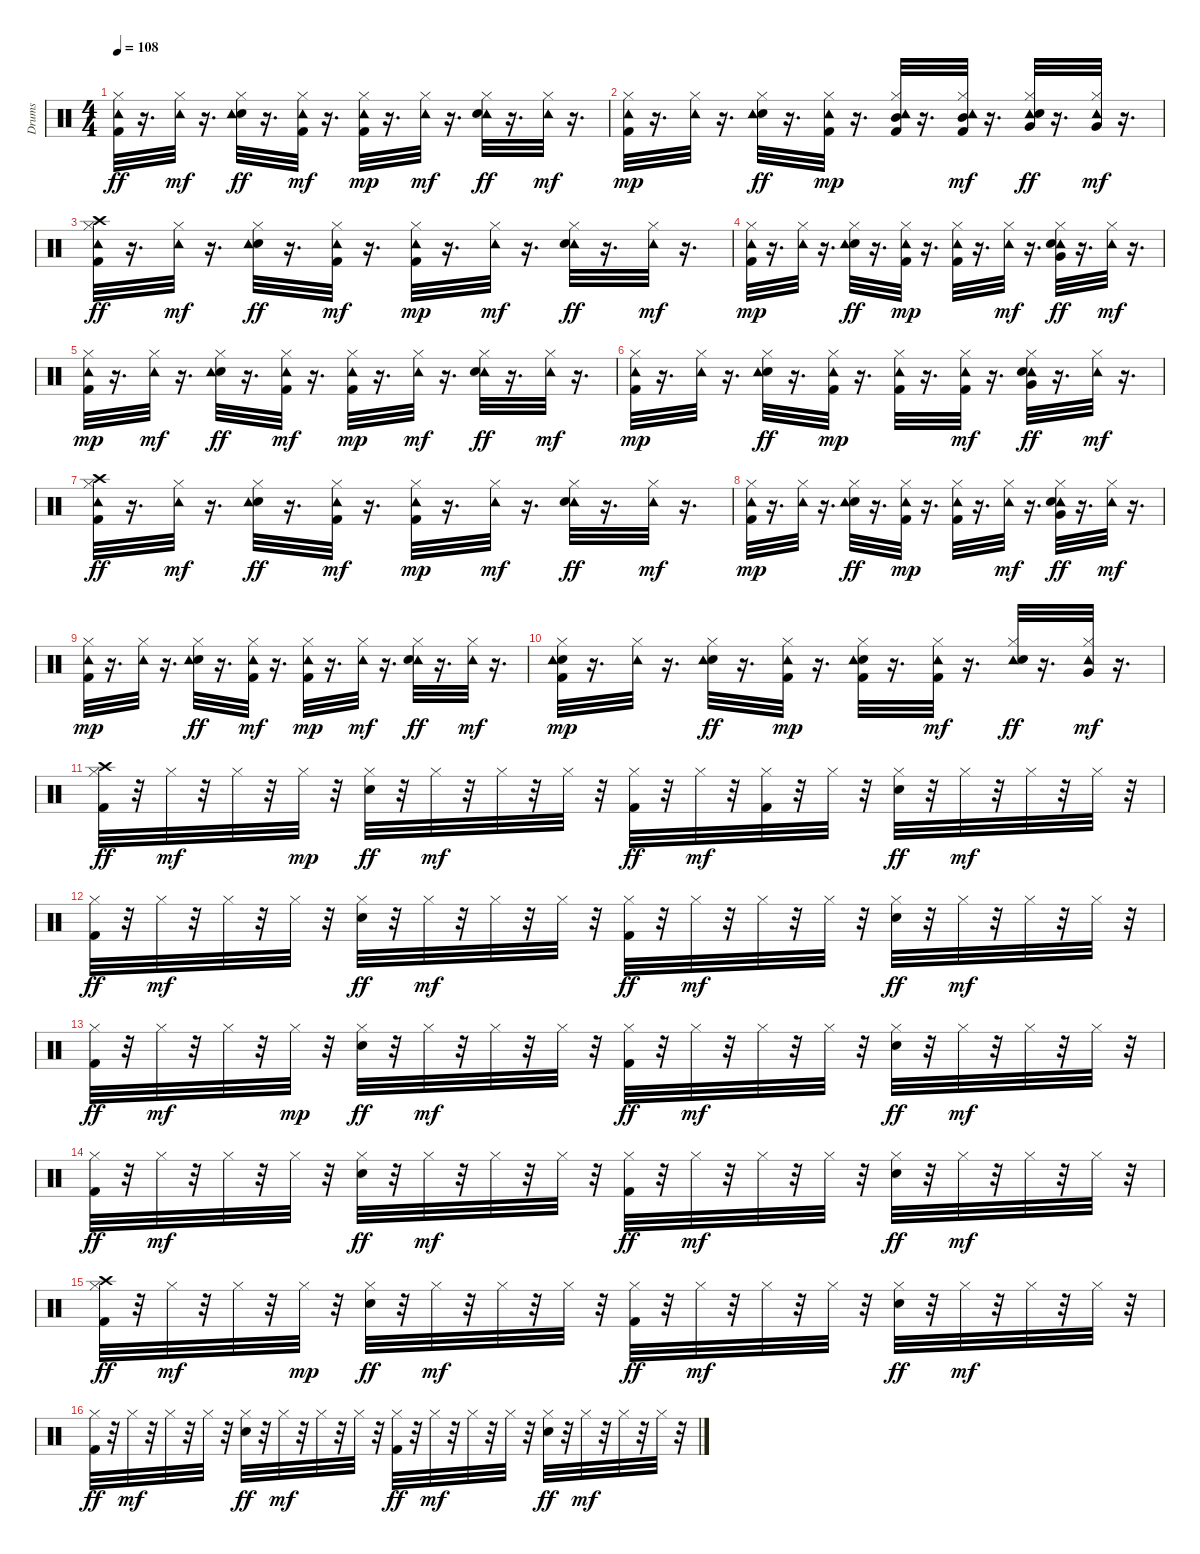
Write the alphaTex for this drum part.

\track ("Drums               " "Drums     ") {instrument percussion}
\staff {score}
\articulation defaults
\ts (4 4)
\tempo 108
\clef neutral
\ks c
("Kick (hit) 2" "Tambourine (hit)" "Hi-Hat (closed)").32{dy ff} r.16{d} ("Tambourine (hit)" "Hi-Hat (closed)").32{dy mf} r.16{d} ("Snare (hit) 2" "Hi-Hat (closed)" "Tambourine (hit)").32{dy ff} r.16{d} ("Tambourine (hit)" "Kick (hit) 2" "Hi-Hat (closed)").32{dy mf} r.16{d} ("Kick (hit) 2" "Hi-Hat (closed)" "Tambourine (hit)").32{dy mp} r.16{d} ("Tambourine (hit)" "Hi-Hat (closed)").32{dy mf} r.16{d} ("Tambourine (hit)" "Snare (hit) 2" "Hi-Hat (closed)").32{dy ff} r.16{d} ("Tambourine (hit)" "Hi-Hat (closed)").32{dy mf} r.16{d} |
("Kick (hit) 2" "Hi-Hat (closed)" "Tambourine (hit)").32{dy mp} r.16{d} ("Hi-Hat (closed)" "Tambourine (hit)").32 r.16{d} ("Hi-Hat (closed)" "Snare (hit) 2" "Tambourine (hit)").32{dy ff} r.16{d} ("Kick (hit) 2" "Hi-Hat (closed)" "Tambourine (hit)").32{dy mp} r.16{d} ("Kick (hit) 2" "Mid Tom (hit)" "Hi-Hat (closed)" "Tambourine (hit)").32 r.16{d} ("Tambourine (hit)" "Kick (hit) 2" "Hi-Hat (closed)" "Mid Tom (hit)").32{dy mf} r.16{d} ("Tambourine (hit)" "Snare (hit) 2" "Very Low Tom (hit)" "Hi-Hat (closed)").32{dy ff} r.16{d} ("Tambourine (hit)" "Very Low Tom (hit)" "Hi-Hat (closed)").32{dy mf} r.16{d} |
("Kick (hit) 2" "Crash high (hit)" "Tambourine (hit)" "Hi-Hat (closed)").32{dy ff} r.16{d} ("Tambourine (hit)" "Hi-Hat (closed)").32{dy mf} r.16{d} ("Snare (hit) 2" "Hi-Hat (closed)" "Tambourine (hit)").32{dy ff} r.16{d} ("Tambourine (hit)" "Kick (hit) 2" "Hi-Hat (closed)").32{dy mf} r.16{d} ("Kick (hit) 2" "Hi-Hat (closed)" "Tambourine (hit)").32{dy mp} r.16{d} ("Tambourine (hit)" "Hi-Hat (closed)").32{dy mf} r.16{d} ("Tambourine (hit)" "Snare (hit) 2" "Hi-Hat (closed)").32{dy ff} r.16{d} ("Tambourine (hit)" "Hi-Hat (closed)").32{dy mf} r.16{d} |
("Kick (hit) 2" "Hi-Hat (closed)" "Tambourine (hit)").32{dy mp} r.16{d} ("Hi-Hat (closed)" "Tambourine (hit)").32 r.16{d} ("Snare (hit) 2" "Hi-Hat (closed)" "Tambourine (hit)").32{dy ff} r.16{d} ("Kick (hit) 2" "Hi-Hat (closed)" "Tambourine (hit)").32{dy mp} r.16{d} ("Kick (hit) 2" "Hi-Hat (closed)" "Tambourine (hit)").32 r.16{d} ("Tambourine (hit)" "Hi-Hat (closed)").32{dy mf} r.16{d} ("Tambourine (hit)" "Snare (hit) 2" "Very Low Tom (hit)" "Hi-Hat (closed)").32{dy ff} r.16{d} ("Tambourine (hit)" "Hi-Hat (closed)").32{dy mf} r.16{d} |
("Hi-Hat (closed)" "Kick (hit) 2" "Tambourine (hit)").32{dy mp} r.16{d} ("Tambourine (hit)" "Hi-Hat (closed)").32{dy mf} r.16{d} ("Snare (hit) 2" "Hi-Hat (closed)" "Tambourine (hit)").32{dy ff} r.16{d} ("Tambourine (hit)" "Kick (hit) 2" "Hi-Hat (closed)").32{dy mf} r.16{d} ("Kick (hit) 2" "Hi-Hat (closed)" "Tambourine (hit)").32{dy mp} r.16{d} ("Tambourine (hit)" "Hi-Hat (closed)").32{dy mf} r.16{d} ("Tambourine (hit)" "Snare (hit) 2" "Hi-Hat (closed)").32{dy ff} r.16{d} ("Tambourine (hit)" "Hi-Hat (closed)").32{dy mf} r.16{d} |
("Kick (hit) 2" "Hi-Hat (closed)" "Tambourine (hit)").32{dy mp} r.16{d} ("Hi-Hat (closed)" "Tambourine (hit)").32 r.16{d} ("Snare (hit) 2" "Hi-Hat (closed)" "Tambourine (hit)").32{dy ff} r.16{d} ("Hi-Hat (closed)" "Kick (hit) 2" "Tambourine (hit)").32{dy mp} r.16{d} ("Kick (hit) 2" "Hi-Hat (closed)" "Tambourine (hit)").32 r.16{d} ("Tambourine (hit)" "Kick (hit) 2" "Hi-Hat (closed)").32{dy mf} r.16{d} ("Tambourine (hit)" "Snare (hit) 2" "Hi-Hat (closed)" "Very Low Tom (hit)").32{dy ff} r.16{d} ("Tambourine (hit)" "Hi-Hat (closed)").32{dy mf} r.16{d} |
("Kick (hit) 2" "Crash high (hit)" "Tambourine (hit)" "Hi-Hat (closed)").32{dy ff} r.16{d} ("Tambourine (hit)" "Hi-Hat (closed)").32{dy mf} r.16{d} ("Snare (hit) 2" "Hi-Hat (closed)" "Tambourine (hit)").32{dy ff} r.16{d} ("Tambourine (hit)" "Kick (hit) 2" "Hi-Hat (closed)").32{dy mf} r.16{d} ("Kick (hit) 2" "Hi-Hat (closed)" "Tambourine (hit)").32{dy mp} r.16{d} ("Tambourine (hit)" "Hi-Hat (closed)").32{dy mf} r.16{d} ("Tambourine (hit)" "Hi-Hat (closed)" "Snare (hit) 2").32{dy ff} r.16{d} ("Tambourine (hit)" "Hi-Hat (closed)").32{dy mf} r.16{d} |
("Kick (hit) 2" "Hi-Hat (closed)" "Tambourine (hit)").32{dy mp} r.16{d} ("Hi-Hat (closed)" "Tambourine (hit)").32 r.16{d} ("Snare (hit) 2" "Hi-Hat (closed)" "Tambourine (hit)").32{dy ff} r.16{d} ("Kick (hit) 2" "Hi-Hat (closed)" "Tambourine (hit)").32{dy mp} r.16{d} ("Kick (hit) 2" "Hi-Hat (closed)" "Tambourine (hit)").32 r.16{d} ("Tambourine (hit)" "Hi-Hat (closed)").32{dy mf} r.16{d} ("Tambourine (hit)" "Snare (hit) 2" "Hi-Hat (closed)" "Very Low Tom (hit)").32{dy ff} r.16{d} ("Tambourine (hit)" "Hi-Hat (closed)").32{dy mf} r.16{d} |
("Kick (hit) 2" "Hi-Hat (closed)" "Tambourine (hit)").32{dy mp} r.16{d} ("Hi-Hat (closed)" "Tambourine (hit)").32 r.16{d} ("Snare (hit) 2" "Hi-Hat (closed)" "Tambourine (hit)").32{dy ff} r.16{d} ("Tambourine (hit)" "Kick (hit) 2" "Hi-Hat (closed)").32{dy mf} r.16{d} ("Kick (hit) 2" "Hi-Hat (closed)" "Tambourine (hit)").32{dy mp} r.16{d} ("Tambourine (hit)" "Hi-Hat (closed)").32{dy mf} r.16{d} ("Tambourine (hit)" "Snare (hit) 2" "Hi-Hat (closed)").32{dy ff} r.16{d} ("Tambourine (hit)" "Hi-Hat (closed)").32{dy mf} r.16{d} |
("Kick (hit) 2" "Snare (hit) 2" "Hi-Hat (closed)" "Tambourine (hit)").32{dy mp} r.16{d} ("Hi-Hat (closed)" "Tambourine (hit)").32 r.16{d} ("Snare (hit) 2" "Hi-Hat (closed)" "Tambourine (hit)").32{dy ff} r.16{d} ("Kick (hit) 2" "Hi-Hat (closed)" "Tambourine (hit)").32{dy mp} r.16{d} ("Hi-Hat (closed)" "Kick (hit) 2" "Snare (hit) 2" "Tambourine (hit)").32 r.16{d} ("Tambourine (hit)" "Kick (hit) 2" "Hi-Hat (closed)").32{dy mf} r.16{d} ("Tambourine (hit)" "Snare (hit) 2" "Hi-Hat (closed)").32{dy ff} r.16{d} ("Tambourine (hit)" "Hi-Hat (closed)" "Very Low Tom (hit)").32{dy mf} r.16{d} |
("Kick (hit) 2" "Crash high (hit)" "Hi-Hat (closed)").32{dy ff} r.32 "Hi-Hat (closed)".32{dy mf} r.32 "Hi-Hat (closed)".32 r.32 "Hi-Hat (closed)".32{dy mp} r.32 ("Snare (hit) 2" "Hi-Hat (closed)").32{dy ff} r.32 "Hi-Hat (closed)".32{dy mf} r.32 "Hi-Hat (closed)".32 r.32 "Hi-Hat (closed)".32 r.32 ("Kick (hit) 2" "Hi-Hat (closed)").32{dy ff} r.32 "Hi-Hat (closed)".32{dy mf} r.32 ("Kick (hit) 2" "Hi-Hat (closed)").32 r.32 "Hi-Hat (closed)".32 r.32 ("Snare (hit) 2" "Hi-Hat (closed)").32{dy ff} r.32 "Hi-Hat (closed)".32{dy mf} r.32 "Hi-Hat (closed)".32 r.32 "Hi-Hat (closed)".32 r.32 |
("Kick (hit) 2" "Hi-Hat (closed)").32{dy ff} r.32 "Hi-Hat (closed)".32{dy mf} r.32 "Hi-Hat (closed)".32 r.32 "Hi-Hat (closed)".32 r.32 ("Snare (hit) 2" "Hi-Hat (closed)").32{dy ff} r.32 "Hi-Hat (closed)".32{dy mf} r.32 "Hi-Hat (closed)".32 r.32 "Hi-Hat (closed)".32 r.32 ("Kick (hit) 2" "Hi-Hat (closed)").32{dy ff} r.32 "Hi-Hat (closed)".32{dy mf} r.32 "Hi-Hat (closed)".32 r.32 "Hi-Hat (closed)".32 r.32 ("Snare (hit) 2" "Hi-Hat (closed)").32{dy ff} r.32 "Hi-Hat (closed)".32{dy mf} r.32 "Hi-Hat (closed)".32 r.32 "Hi-Hat (closed)".32 r.32 |
("Kick (hit) 2" "Hi-Hat (closed)").32{dy ff} r.32 "Hi-Hat (closed)".32{dy mf} r.32 "Hi-Hat (closed)".32 r.32 "Hi-Hat (closed)".32{dy mp} r.32 ("Hi-Hat (closed)" "Snare (hit) 2").32{dy ff} r.32 "Hi-Hat (closed)".32{dy mf} r.32 "Hi-Hat (closed)".32 r.32 "Hi-Hat (closed)".32 r.32 ("Kick (hit) 2" "Hi-Hat (closed)").32{dy ff} r.32 "Hi-Hat (closed)".32{dy mf} r.32 "Hi-Hat (closed)".32 r.32 "Hi-Hat (closed)".32 r.32 ("Snare (hit) 2" "Hi-Hat (closed)").32{dy ff} r.32 "Hi-Hat (closed)".32{dy mf} r.32 "Hi-Hat (closed)".32 r.32 "Hi-Hat (closed)".32 r.32 |
("Kick (hit) 2" "Hi-Hat (closed)").32{dy ff} r.32 "Hi-Hat (closed)".32{dy mf} r.32 "Hi-Hat (closed)".32 r.32 "Hi-Hat (closed)".32 r.32 ("Snare (hit) 2" "Hi-Hat (closed)").32{dy ff} r.32 "Hi-Hat (closed)".32{dy mf} r.32 "Hi-Hat (closed)".32 r.32 "Hi-Hat (closed)".32 r.32 ("Kick (hit) 2" "Hi-Hat (closed)").32{dy ff} r.32 "Hi-Hat (closed)".32{dy mf} r.32 "Hi-Hat (closed)".32 r.32 "Hi-Hat (closed)".32 r.32 ("Snare (hit) 2" "Hi-Hat (closed)").32{dy ff} r.32 "Hi-Hat (closed)".32{dy mf} r.32 "Hi-Hat (closed)".32 r.32 "Hi-Hat (closed)".32 r.32 |
("Kick (hit) 2" "Hi-Hat (closed)" "Crash high (hit)").32{dy ff} r.32 "Hi-Hat (closed)".32{dy mf} r.32 "Hi-Hat (closed)".32 r.32 "Hi-Hat (closed)".32{dy mp} r.32 ("Snare (hit) 2" "Hi-Hat (closed)").32{dy ff} r.32 "Hi-Hat (closed)".32{dy mf} r.32 "Hi-Hat (closed)".32 r.32 "Hi-Hat (closed)".32 r.32 ("Kick (hit) 2" "Hi-Hat (closed)").32{dy ff} r.32 "Hi-Hat (closed)".32{dy mf} r.32 "Hi-Hat (closed)".32 r.32 "Hi-Hat (closed)".32 r.32 ("Snare (hit) 2" "Hi-Hat (closed)").32{dy ff} r.32 "Hi-Hat (closed)".32{dy mf} r.32 "Hi-Hat (closed)".32 r.32 "Hi-Hat (closed)".32 r.32 |
("Hi-Hat (closed)" "Kick (hit) 2").32{dy ff} r.32 "Hi-Hat (closed)".32{dy mf} r.32 "Hi-Hat (closed)".32 r.32 "Hi-Hat (closed)".32 r.32 ("Snare (hit) 2" "Hi-Hat (closed)").32{dy ff} r.32 "Hi-Hat (closed)".32{dy mf} r.32 "Hi-Hat (closed)".32 r.32 "Hi-Hat (closed)".32 r.32 ("Kick (hit) 2" "Hi-Hat (closed)").32{dy ff} r.32 "Hi-Hat (closed)".32{dy mf} r.32 "Hi-Hat (closed)".32 r.32 "Hi-Hat (closed)".32 r.32 ("Snare (hit) 2" "Hi-Hat (closed)").32{dy ff} r.32 "Hi-Hat (closed)".32{dy mf} r.32 "Hi-Hat (closed)".32 r.32 "Hi-Hat (closed)".32 r.32
